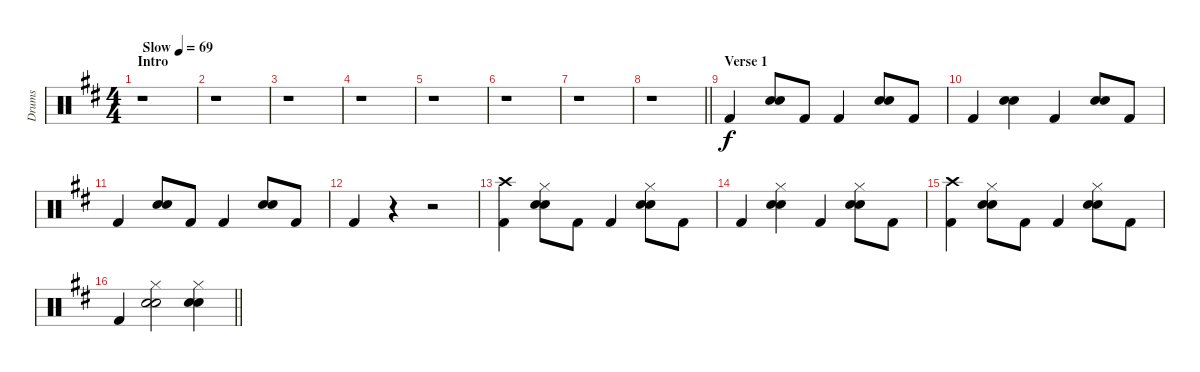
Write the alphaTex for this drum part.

\track ("Drums" "Drums") {instrument percussion}
\staff {score}
\articulation defaults
\ts (4 4)
\section ("" "Intro")
\tempo (69 "Slow")
\clef neutral
\ks d
r.1{dy f} |
r.1 |
r.1 |
r.1 |
r.1 |
r.1 |
r.1 |
\barLineRight lightlight
r.1 |
\section ("" "Verse 1")
\ks bminor "Kick (hit) 2".4
("Hand Clap (hit)" "Snare (hit) 2").8 "Kick (hit) 2".8 "Kick (hit) 2".4 ("Hand Clap (hit)" "Snare (hit) 2").8 "Kick (hit) 2".8 |
"Kick (hit) 2".4 ("Hand Clap (hit)" "Snare (hit) 2").4 "Kick (hit) 2".4 ("Hand Clap (hit)" "Snare (hit) 2").8 "Kick (hit) 2".8 |
"Kick (hit) 2".4 ("Hand Clap (hit)" "Snare (hit) 2").8 "Kick (hit) 2".8 "Kick (hit) 2".4 ("Hand Clap (hit)" "Snare (hit) 2").8 "Kick (hit) 2".8 |
"Kick (hit) 2".4 r.4 r.2 |
("Crash high (hit)" "Kick (hit) 2").4 ("Hi-Hat (closed)" "Hand Clap (hit)" "Snare (hit) 2").8 "Kick (hit) 2".8 "Kick (hit) 2".4 ("Hi-Hat (closed)" "Hand Clap (hit)" "Snare (hit) 2").8 "Kick (hit) 2".8 |
"Kick (hit) 2".4 ("Hi-Hat (closed)" "Hand Clap (hit)" "Snare (hit) 2").4 "Kick (hit) 2".4 ("Hi-Hat (closed)" "Hand Clap (hit)" "Snare (hit) 2").8 "Kick (hit) 2".8 |
("Crash high (hit)" "Kick (hit) 2").4 ("Hi-Hat (closed)" "Hand Clap (hit)" "Snare (hit) 2").8 "Kick (hit) 2".8 "Kick (hit) 2".4 ("Hi-Hat (closed)" "Hand Clap (hit)" "Snare (hit) 2").8 "Kick (hit) 2".8 |
\barLineRight lightlight
\ks d "Kick (hit) 2".4
("Hi-Hat (closed)" "Hand Clap (hit)" "Snare (hit) 2").2 ("Hi-Hat (closed)" "Hand Clap (hit)" "Snare (hit) 2").4
